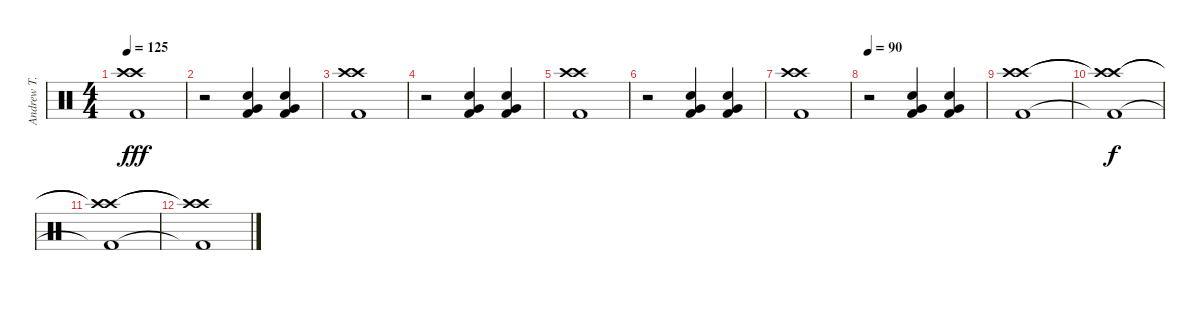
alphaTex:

\track ("Andrew T." "Andrew T.") {instrument percussion}
\staff {score}
\articulation defaults
\ts (4 4)
\tempo 125
\clef neutral
\ks c
("Crash high (hit)" "Crash high (hit)" "Kick (hit) 2").1{dy fff} |
r.2 ("Electric Snare (hit)" "Very Low Tom (hit)" "Kick (hit) 2").4 ("Electric Snare (hit)" "Very Low Tom (hit)" "Kick (hit) 2").4 |
("Crash high (hit)" "Crash high (hit)" "Kick (hit) 2").1 |
r.2 ("Electric Snare (hit)" "Very Low Tom (hit)" "Kick (hit) 2").4 ("Electric Snare (hit)" "Very Low Tom (hit)" "Kick (hit) 2").4 |
("Crash high (hit)" "Crash high (hit)" "Kick (hit) 2").1 |
r.2 ("Electric Snare (hit)" "Very Low Tom (hit)" "Kick (hit) 2").4 ("Electric Snare (hit)" "Very Low Tom (hit)" "Kick (hit) 2").4 |
("Crash high (hit)" "Crash high (hit)" "Kick (hit) 2").1 |
\tempo 90
r.2 ("Electric Snare (hit)" "Very Low Tom (hit)" "Kick (hit) 2").4 ("Electric Snare (hit)" "Very Low Tom (hit)" "Kick (hit) 2").4 |
("Crash high (hit)" "Crash high (hit)" "Kick (hit) 2").1 |
("Crash high (hit)"{t} "Crash high (hit)"{t} "Kick (hit) 2"{t}).1{dy f} |
("Crash high (hit)"{t} "Crash high (hit)"{t} "Kick (hit) 2"{t}).1 |
("Crash high (hit)"{t} "Crash high (hit)"{t} "Kick (hit) 2"{t}).1
